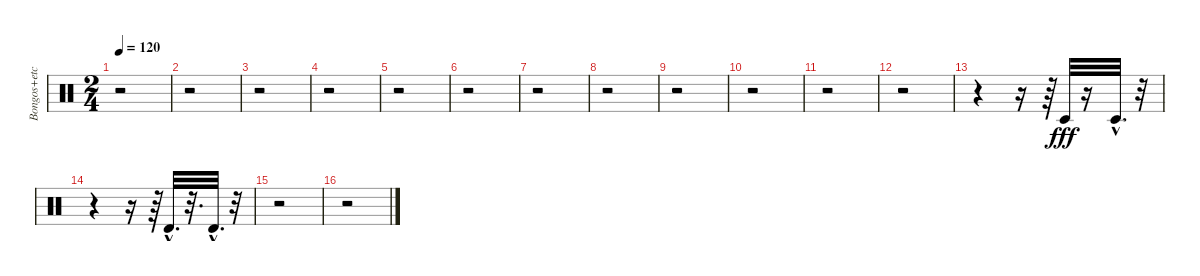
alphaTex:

\track ("Bongos+etc" "Bongos+etc") {instrument percussion}
\staff {score}
\articulation defaults
\ts (2 4)
\tempo 120
\clef neutral
\ks c
r.2{dy fff} |
r.2 |
r.2 |
r.2 |
r.2 |
r.2 |
r.2 |
r.2 |
r.2 |
r.2 |
r.2 |
r.2 |
r.4 r.16 r.64 "Timbale low (hit)".32 r.16 "Timbale low (hit)"{hac}.32{d} r.32 |
r.4 r.16 r.64 "Timbale high (hit)"{hac}.32{d} r.32{d} "Timbale high (hit)"{hac}.32{d} r.32 |
r.2 |
r.2
